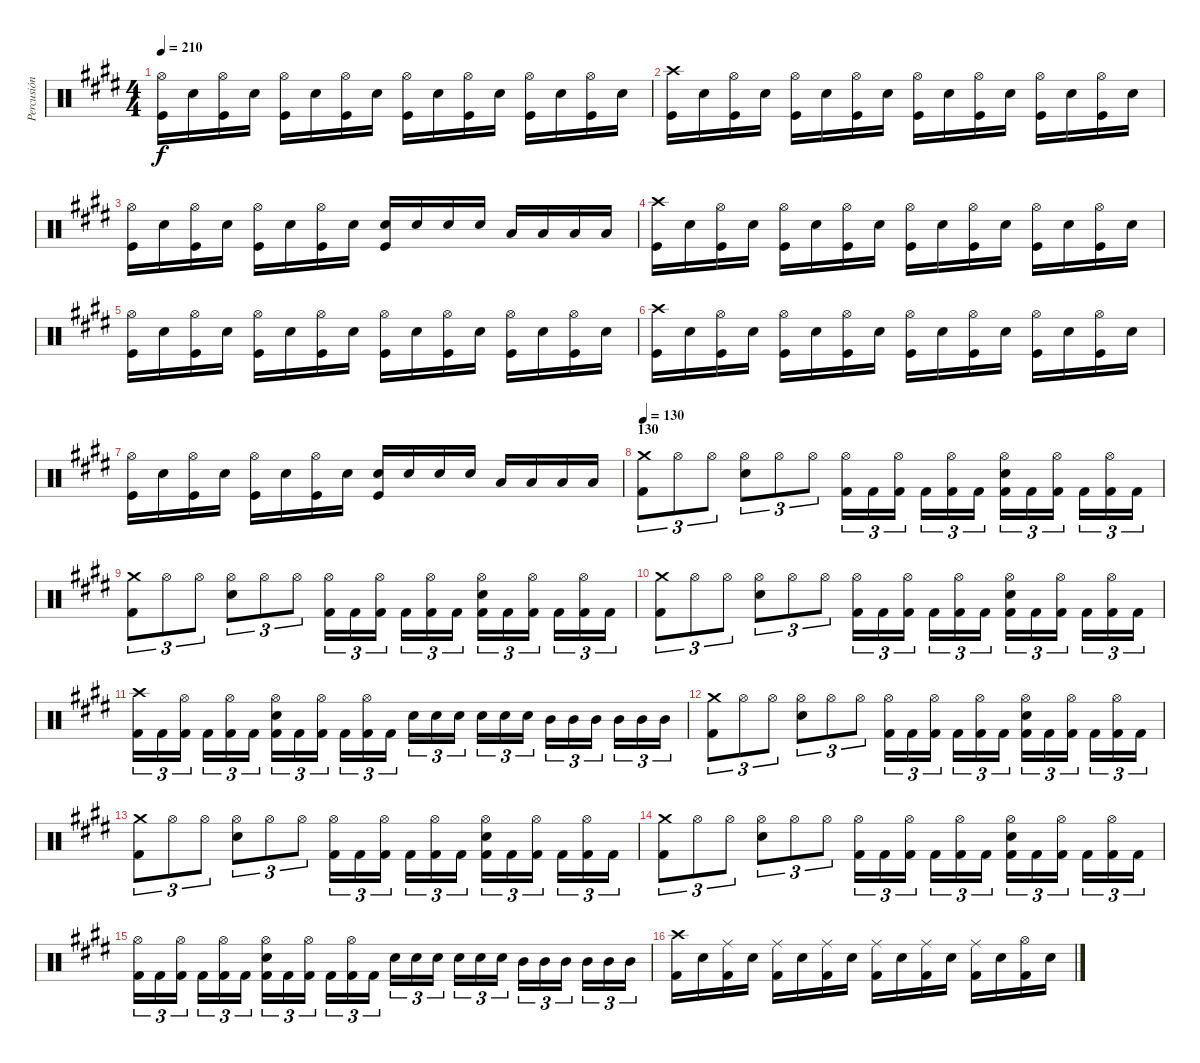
\track ("Percusión" "Percusión") {instrument percussion}
\staff {score}
\articulation defaults
\ts (4 4)
\tempo 210
\clef neutral
\ks e
("Hi-Hat (open)" "Kick (hit)").16{dy f} "Electric Snare (hit)".16 ("Hi-Hat (open)" "Kick (hit)").16 "Electric Snare (hit)".16 ("Hi-Hat (open)" "Kick (hit)").16 "Electric Snare (hit)".16 ("Hi-Hat (open)" "Kick (hit)").16 "Electric Snare (hit)".16 ("Hi-Hat (open)" "Kick (hit)").16 "Electric Snare (hit)".16 ("Hi-Hat (open)" "Kick (hit)").16 "Electric Snare (hit)".16 ("Hi-Hat (open)" "Kick (hit)").16 "Electric Snare (hit)".16 ("Hi-Hat (open)" "Kick (hit)").16 "Electric Snare (hit)".16 |
("Crash high (hit)" "Kick (hit)").16 "Electric Snare (hit)".16 ("Hi-Hat (open)" "Kick (hit)").16 "Electric Snare (hit)".16 ("Hi-Hat (open)" "Kick (hit)").16 "Electric Snare (hit)".16 ("Hi-Hat (open)" "Kick (hit)").16 "Electric Snare (hit)".16 ("Hi-Hat (open)" "Kick (hit)").16 "Electric Snare (hit)".16 ("Hi-Hat (open)" "Kick (hit)").16 "Electric Snare (hit)".16 ("Hi-Hat (open)" "Kick (hit)").16 "Electric Snare (hit)".16 ("Hi-Hat (open)" "Kick (hit)").16 "Electric Snare (hit)".16 |
("Hi-Hat (open)" "Kick (hit)").16 "Electric Snare (hit)".16 ("Hi-Hat (open)" "Kick (hit)").16 "Electric Snare (hit)".16 ("Hi-Hat (open)" "Kick (hit)").16 "Electric Snare (hit)".16 ("Hi-Hat (open)" "Kick (hit)").16 "Electric Snare (hit)".16 ("Electric Snare (hit)" "Kick (hit)").16 "Electric Snare (hit)".16 "Electric Snare (hit)".16 "Electric Snare (hit)".16 "Low Tom (hit)".16 "Low Tom (hit)".16 "Low Tom (hit)".16 "Low Tom (hit)".16 |
("Crash high (hit)" "Kick (hit)").16 "Electric Snare (hit)".16 ("Hi-Hat (open)" "Kick (hit)").16 "Electric Snare (hit)".16 ("Hi-Hat (open)" "Kick (hit)").16 "Electric Snare (hit)".16 ("Hi-Hat (open)" "Kick (hit)").16 "Electric Snare (hit)".16 ("Hi-Hat (open)" "Kick (hit)").16 "Electric Snare (hit)".16 ("Hi-Hat (open)" "Kick (hit)").16 "Electric Snare (hit)".16 ("Hi-Hat (open)" "Kick (hit)").16 "Electric Snare (hit)".16 ("Hi-Hat (open)" "Kick (hit)").16 "Electric Snare (hit)".16 |
("Hi-Hat (open)" "Kick (hit)").16 "Electric Snare (hit)".16 ("Hi-Hat (open)" "Kick (hit)").16 "Electric Snare (hit)".16 ("Hi-Hat (open)" "Kick (hit)").16 "Electric Snare (hit)".16 ("Hi-Hat (open)" "Kick (hit)").16 "Electric Snare (hit)".16 ("Hi-Hat (open)" "Kick (hit)").16 "Electric Snare (hit)".16 ("Hi-Hat (open)" "Kick (hit)").16 "Electric Snare (hit)".16 ("Hi-Hat (open)" "Kick (hit)").16 "Electric Snare (hit)".16 ("Hi-Hat (open)" "Kick (hit)").16 "Electric Snare (hit)".16 |
("Crash high (hit)" "Kick (hit)").16 "Electric Snare (hit)".16 ("Hi-Hat (open)" "Kick (hit)").16 "Electric Snare (hit)".16 ("Hi-Hat (open)" "Kick (hit)").16 "Electric Snare (hit)".16 ("Hi-Hat (open)" "Kick (hit)").16 "Electric Snare (hit)".16 ("Hi-Hat (open)" "Kick (hit)").16 "Electric Snare (hit)".16 ("Hi-Hat (open)" "Kick (hit)").16 "Electric Snare (hit)".16 ("Hi-Hat (open)" "Kick (hit)").16 "Electric Snare (hit)".16 ("Hi-Hat (open)" "Kick (hit)").16 "Electric Snare (hit)".16 |
("Hi-Hat (open)" "Kick (hit)").16 "Electric Snare (hit)".16 ("Hi-Hat (open)" "Kick (hit)").16 "Electric Snare (hit)".16 ("Hi-Hat (open)" "Kick (hit)").16 "Electric Snare (hit)".16 ("Hi-Hat (open)" "Kick (hit)").16 "Electric Snare (hit)".16 ("Electric Snare (hit)" "Kick (hit)").16 "Electric Snare (hit)".16 "Electric Snare (hit)".16 "Electric Snare (hit)".16 "Low Tom (hit)".16 "Low Tom (hit)".16 "Low Tom (hit)".16 "Low Tom (hit)".16 |
\section ("" "130")
\tempo 130
("Crash medium (hit)" "Kick (hit) 2").8{tu (3 2)} "Hi-Hat (open)".8{tu (3 2)} "Hi-Hat (open)".8{tu (3 2)} ("Hi-Hat (open)" "Electric Snare (hit)").8{tu (3 2)} "Hi-Hat (open)".8{tu (3 2)} "Hi-Hat (open)".8{tu (3 2)} ("Hi-Hat (open)" "Kick (hit) 2").16{tu (3 2)} "Kick (hit) 2".16{tu (3 2)} ("Hi-Hat (open)" "Kick (hit) 2").16{tu (3 2)} "Kick (hit) 2".16{tu (3 2)} ("Hi-Hat (open)" "Kick (hit) 2").16{tu (3 2)} "Kick (hit) 2".16{tu (3 2)} ("Hi-Hat (open)" "Electric Snare (hit)" "Kick (hit) 2").16{tu (3 2)} "Kick (hit) 2".16{tu (3 2)} ("Hi-Hat (open)" "Kick (hit) 2").16{tu (3 2)} "Kick (hit) 2".16{tu (3 2)} ("Hi-Hat (open)" "Kick (hit) 2").16{tu (3 2)} "Kick (hit) 2".16{tu (3 2)} |
("Crash medium (hit)" "Kick (hit) 2").8{tu (3 2)} "Hi-Hat (open)".8{tu (3 2)} "Hi-Hat (open)".8{tu (3 2)} ("Hi-Hat (open)" "Electric Snare (hit)").8{tu (3 2)} "Hi-Hat (open)".8{tu (3 2)} "Hi-Hat (open)".8{tu (3 2)} ("Hi-Hat (open)" "Kick (hit) 2").16{tu (3 2)} "Kick (hit) 2".16{tu (3 2)} ("Hi-Hat (open)" "Kick (hit) 2").16{tu (3 2)} "Kick (hit) 2".16{tu (3 2)} ("Hi-Hat (open)" "Kick (hit) 2").16{tu (3 2)} "Kick (hit) 2".16{tu (3 2)} ("Hi-Hat (open)" "Electric Snare (hit)" "Kick (hit) 2").16{tu (3 2)} "Kick (hit) 2".16{tu (3 2)} ("Hi-Hat (open)" "Kick (hit) 2").16{tu (3 2)} "Kick (hit) 2".16{tu (3 2)} ("Hi-Hat (open)" "Kick (hit) 2").16{tu (3 2)} "Kick (hit) 2".16{tu (3 2)} |
("Crash medium (hit)" "Kick (hit) 2").8{tu (3 2)} "Hi-Hat (open)".8{tu (3 2)} "Hi-Hat (open)".8{tu (3 2)} ("Hi-Hat (open)" "Electric Snare (hit)").8{tu (3 2)} "Hi-Hat (open)".8{tu (3 2)} "Hi-Hat (open)".8{tu (3 2)} ("Hi-Hat (open)" "Kick (hit) 2").16{tu (3 2)} "Kick (hit) 2".16{tu (3 2)} ("Hi-Hat (open)" "Kick (hit) 2").16{tu (3 2)} "Kick (hit) 2".16{tu (3 2)} ("Hi-Hat (open)" "Kick (hit) 2").16{tu (3 2)} "Kick (hit) 2".16{tu (3 2)} ("Hi-Hat (open)" "Electric Snare (hit)" "Kick (hit) 2").16{tu (3 2)} "Kick (hit) 2".16{tu (3 2)} ("Hi-Hat (open)" "Kick (hit) 2").16{tu (3 2)} "Kick (hit) 2".16{tu (3 2)} ("Hi-Hat (open)" "Kick (hit) 2").16{tu (3 2)} "Kick (hit) 2".16{tu (3 2)} |
("Crash high (hit)" "Kick (hit) 2").16{tu (3 2)} "Kick (hit) 2".16{tu (3 2)} ("Hi-Hat (open)" "Kick (hit) 2").16{tu (3 2)} "Kick (hit) 2".16{tu (3 2)} ("Hi-Hat (open)" "Kick (hit) 2").16{tu (3 2)} "Kick (hit) 2".16{tu (3 2)} ("Hi-Hat (open)" "Electric Snare (hit)" "Kick (hit) 2").16{tu (3 2)} "Kick (hit) 2".16{tu (3 2)} ("Hi-Hat (open)" "Kick (hit) 2").16{tu (3 2)} "Kick (hit) 2".16{tu (3 2)} ("Hi-Hat (open)" "Kick (hit) 2").16{tu (3 2)} "Kick (hit) 2".16{tu (3 2)} "Electric Snare (hit)".16{tu (3 2)} "Electric Snare (hit)".16{tu (3 2)} "Electric Snare (hit)".16{tu (3 2)} "Electric Snare (hit)".16{tu (3 2)} "Electric Snare (hit)".16{tu (3 2)} "Electric Snare (hit)".16{tu (3 2)} "Mid Tom (hit)".16{tu (3 2)} "Mid Tom (hit)".16{tu (3 2)} "Mid Tom (hit)".16{tu (3 2)} "Mid Tom (hit)".16{tu (3 2)} "Mid Tom (hit)".16{tu (3 2)} "Mid Tom (hit)".16{tu (3 2)} |
("Crash medium (hit)" "Kick (hit) 2").8{tu (3 2)} "Hi-Hat (open)".8{tu (3 2)} "Hi-Hat (open)".8{tu (3 2)} ("Hi-Hat (open)" "Electric Snare (hit)").8{tu (3 2)} "Hi-Hat (open)".8{tu (3 2)} "Hi-Hat (open)".8{tu (3 2)} ("Hi-Hat (open)" "Kick (hit) 2").16{tu (3 2)} "Kick (hit) 2".16{tu (3 2)} ("Hi-Hat (open)" "Kick (hit) 2").16{tu (3 2)} "Kick (hit) 2".16{tu (3 2)} ("Hi-Hat (open)" "Kick (hit) 2").16{tu (3 2)} "Kick (hit) 2".16{tu (3 2)} ("Hi-Hat (open)" "Electric Snare (hit)" "Kick (hit) 2").16{tu (3 2)} "Kick (hit) 2".16{tu (3 2)} ("Hi-Hat (open)" "Kick (hit) 2").16{tu (3 2)} "Kick (hit) 2".16{tu (3 2)} ("Hi-Hat (open)" "Kick (hit) 2").16{tu (3 2)} "Kick (hit) 2".16{tu (3 2)} |
("Crash medium (hit)" "Kick (hit) 2").8{tu (3 2)} "Hi-Hat (open)".8{tu (3 2)} "Hi-Hat (open)".8{tu (3 2)} ("Hi-Hat (open)" "Electric Snare (hit)").8{tu (3 2)} "Hi-Hat (open)".8{tu (3 2)} "Hi-Hat (open)".8{tu (3 2)} ("Hi-Hat (open)" "Kick (hit) 2").16{tu (3 2)} "Kick (hit) 2".16{tu (3 2)} ("Hi-Hat (open)" "Kick (hit) 2").16{tu (3 2)} "Kick (hit) 2".16{tu (3 2)} ("Hi-Hat (open)" "Kick (hit) 2").16{tu (3 2)} "Kick (hit) 2".16{tu (3 2)} ("Hi-Hat (open)" "Electric Snare (hit)" "Kick (hit) 2").16{tu (3 2)} "Kick (hit) 2".16{tu (3 2)} ("Hi-Hat (open)" "Kick (hit) 2").16{tu (3 2)} "Kick (hit) 2".16{tu (3 2)} ("Hi-Hat (open)" "Kick (hit) 2").16{tu (3 2)} "Kick (hit) 2".16{tu (3 2)} |
("Crash medium (hit)" "Kick (hit) 2").8{tu (3 2)} "Hi-Hat (open)".8{tu (3 2)} "Hi-Hat (open)".8{tu (3 2)} ("Hi-Hat (open)" "Electric Snare (hit)").8{tu (3 2)} "Hi-Hat (open)".8{tu (3 2)} "Hi-Hat (open)".8{tu (3 2)} ("Hi-Hat (open)" "Kick (hit) 2").16{tu (3 2)} "Kick (hit) 2".16{tu (3 2)} ("Hi-Hat (open)" "Kick (hit) 2").16{tu (3 2)} "Kick (hit) 2".16{tu (3 2)} ("Hi-Hat (open)" "Kick (hit) 2").16{tu (3 2)} "Kick (hit) 2".16{tu (3 2)} ("Hi-Hat (open)" "Electric Snare (hit)" "Kick (hit) 2").16{tu (3 2)} "Kick (hit) 2".16{tu (3 2)} ("Hi-Hat (open)" "Kick (hit) 2").16{tu (3 2)} "Kick (hit) 2".16{tu (3 2)} ("Hi-Hat (open)" "Kick (hit) 2").16{tu (3 2)} "Kick (hit) 2".16{tu (3 2)} |
("Hi-Hat (open)" "Kick (hit) 2").16{tu (3 2)} "Kick (hit) 2".16{tu (3 2)} ("Hi-Hat (open)" "Kick (hit) 2").16{tu (3 2)} "Kick (hit) 2".16{tu (3 2)} ("Hi-Hat (open)" "Kick (hit) 2").16{tu (3 2)} "Kick (hit) 2".16{tu (3 2)} ("Hi-Hat (open)" "Electric Snare (hit)" "Kick (hit) 2").16{tu (3 2)} "Kick (hit) 2".16{tu (3 2)} ("Hi-Hat (open)" "Kick (hit) 2").16{tu (3 2)} "Kick (hit) 2".16{tu (3 2)} ("Hi-Hat (open)" "Kick (hit) 2").16{tu (3 2)} "Kick (hit) 2".16{tu (3 2)} "Electric Snare (hit)".16{tu (3 2)} "Electric Snare (hit)".16{tu (3 2)} "Electric Snare (hit)".16{tu (3 2)} "Electric Snare (hit)".16{tu (3 2)} "Electric Snare (hit)".16{tu (3 2)} "Electric Snare (hit)".16{tu (3 2)} "Mid Tom (hit)".16{tu (3 2)} "Mid Tom (hit)".16{tu (3 2)} "Mid Tom (hit)".16{tu (3 2)} "Mid Tom (hit)".16{tu (3 2)} "Mid Tom (hit)".16{tu (3 2)} "Mid Tom (hit)".16{tu (3 2)} |
("Crash high (hit)" "Kick (hit) 2").16 "Electric Snare (hit)".16 ("Ride (middle)" "Kick (hit) 2").16 "Electric Snare (hit)".16 ("Ride (middle)" "Kick (hit) 2").16 "Electric Snare (hit)".16 ("Ride (middle)" "Kick (hit) 2").16 "Electric Snare (hit)".16 ("Ride (middle)" "Kick (hit) 2").16 "Electric Snare (hit)".16 ("Ride (middle)" "Kick (hit) 2").16 "Electric Snare (hit)".16 ("Ride (middle)" "Kick (hit) 2").16 "Electric Snare (hit)".16 ("Hi-Hat (open)" "Kick (hit) 2").16 "Electric Snare (hit)".16
